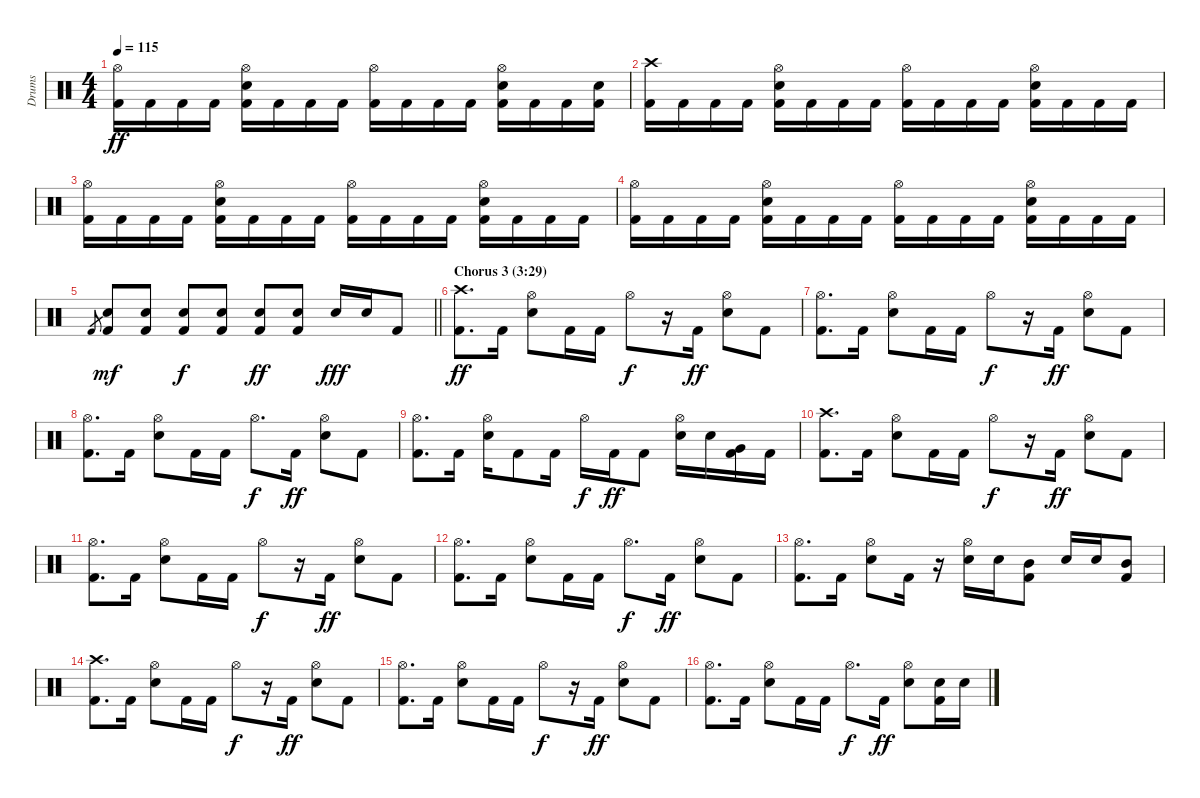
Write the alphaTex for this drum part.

\track ("Drums" "Drums") {instrument percussion}
\staff {score}
\articulation defaults
\ts (4 4)
\tempo 115
\clef neutral
\ks c
("Hi-Hat (open)" "Kick (hit) 2").16{dy ff} "Kick (hit) 2".16 "Kick (hit) 2".16 "Kick (hit) 2".16 ("Hi-Hat (open)" "Snare (hit) 2" "Kick (hit) 2").16 "Kick (hit) 2".16 "Kick (hit) 2".16 "Kick (hit) 2".16 ("Hi-Hat (open)" "Kick (hit) 2").16 "Kick (hit) 2".16 "Kick (hit) 2".16 "Kick (hit) 2".16 ("Hi-Hat (open)" "Snare (hit) 2" "Kick (hit) 2").16 "Kick (hit) 2".16 "Kick (hit) 2".16 ("Snare (hit) 2" "Kick (hit) 2").16 |
("Crash high (hit)" "Kick (hit) 2").16 "Kick (hit) 2".16 "Kick (hit) 2".16 "Kick (hit) 2".16 ("Hi-Hat (open)" "Snare (hit) 2" "Kick (hit) 2").16 "Kick (hit) 2".16 "Kick (hit) 2".16 "Kick (hit) 2".16 ("Hi-Hat (open)" "Kick (hit) 2").16 "Kick (hit) 2".16 "Kick (hit) 2".16 "Kick (hit) 2".16 ("Hi-Hat (open)" "Snare (hit) 2" "Kick (hit) 2").16 "Kick (hit) 2".16 "Kick (hit) 2".16 "Kick (hit) 2".16 |
("Hi-Hat (open)" "Kick (hit) 2").16 "Kick (hit) 2".16 "Kick (hit) 2".16 "Kick (hit) 2".16 ("Hi-Hat (open)" "Snare (hit) 2" "Kick (hit) 2").16 "Kick (hit) 2".16 "Kick (hit) 2".16 "Kick (hit) 2".16 ("Hi-Hat (open)" "Kick (hit) 2").16 "Kick (hit) 2".16 "Kick (hit) 2".16 "Kick (hit) 2".16 ("Hi-Hat (open)" "Snare (hit) 2" "Kick (hit) 2").16 "Kick (hit) 2".16 "Kick (hit) 2".16 "Kick (hit) 2".16 |
("Hi-Hat (open)" "Kick (hit) 2").16 "Kick (hit) 2".16 "Kick (hit) 2".16 "Kick (hit) 2".16 ("Hi-Hat (open)" "Snare (hit) 2" "Kick (hit) 2").16 "Kick (hit) 2".16 "Kick (hit) 2".16 "Kick (hit) 2".16 ("Hi-Hat (open)" "Kick (hit) 2").16 "Kick (hit) 2".16 "Kick (hit) 2".16 "Kick (hit) 2".16 ("Hi-Hat (open)" "Snare (hit) 2" "Kick (hit) 2").16 "Kick (hit) 2".16 "Kick (hit) 2".16 "Kick (hit) 2".16 |
\barLineRight lightlight "Kick (hit) 2".8{gr}
("Snare (hit) 2" "Kick (hit) 2").8{dy mf} ("Snare (hit) 2" "Kick (hit) 2").8 ("Snare (hit) 2" "Kick (hit) 2").8{dy f} ("Snare (hit) 2" "Kick (hit) 2").8 ("Snare (hit) 2" "Kick (hit) 2").8{dy ff} ("Snare (hit) 2" "Kick (hit) 2").8 "Snare (hit) 2".16{dy fff} "Snare (hit) 2".16 "Kick (hit) 2".8 |
\section ("" "Chorus 3 (3:29)")
("Crash high (hit)" "Kick (hit) 2").8{d dy ff} "Kick (hit) 2".16 ("Hi-Hat (open)" "Snare (hit) 2").8 "Kick (hit) 2".16 "Kick (hit) 2".16 "Hi-Hat (open)".8{dy f} r.16 "Kick (hit) 2".16{dy ff} ("Hi-Hat (open)" "Snare (hit) 2").8 "Kick (hit) 2".8 |
("Hi-Hat (open)" "Kick (hit) 2").8{d} "Kick (hit) 2".16 ("Hi-Hat (open)" "Snare (hit) 2").8 "Kick (hit) 2".16 "Kick (hit) 2".16 "Hi-Hat (open)".8{dy f} r.16 "Kick (hit) 2".16{dy ff} ("Hi-Hat (open)" "Snare (hit) 2").8 "Kick (hit) 2".8 |
("Hi-Hat (open)" "Kick (hit) 2").8{d} "Kick (hit) 2".16 ("Hi-Hat (open)" "Snare (hit) 2").8 "Kick (hit) 2".16 "Kick (hit) 2".16 "Hi-Hat (open)".8{d dy f} "Kick (hit) 2".16{dy ff} ("Hi-Hat (open)" "Snare (hit) 2").8 "Kick (hit) 2".8 |
("Hi-Hat (open)" "Kick (hit) 2").8{d} "Kick (hit) 2".16 ("Hi-Hat (open)" "Snare (hit) 2").16 "Kick (hit) 2".8 "Kick (hit) 2".16 "Hi-Hat (open)".16{dy f} "Kick (hit) 2".16{dy ff} "Kick (hit) 2".8 ("Hi-Hat (open)" "Snare (hit) 2").16 "Snare (hit) 2".16 ("Very Low Tom (hit)" "Kick (hit) 2").16 "Kick (hit) 2".16 |
("Crash high (hit)" "Kick (hit) 2").8{d} "Kick (hit) 2".16 ("Hi-Hat (open)" "Snare (hit) 2").8 "Kick (hit) 2".16 "Kick (hit) 2".16 "Hi-Hat (open)".8{dy f} r.16 "Kick (hit) 2".16{dy ff} ("Hi-Hat (open)" "Snare (hit) 2").8 "Kick (hit) 2".8 |
("Hi-Hat (open)" "Kick (hit) 2").8{d} "Kick (hit) 2".16 ("Hi-Hat (open)" "Snare (hit) 2").8 "Kick (hit) 2".16 "Kick (hit) 2".16 "Hi-Hat (open)".8{dy f} r.16 "Kick (hit) 2".16{dy ff} ("Hi-Hat (open)" "Snare (hit) 2").8 "Kick (hit) 2".8 |
("Hi-Hat (open)" "Kick (hit) 2").8{d} "Kick (hit) 2".16 ("Hi-Hat (open)" "Snare (hit) 2").8 "Kick (hit) 2".16 "Kick (hit) 2".16 "Hi-Hat (open)".8{d dy f} "Kick (hit) 2".16{dy ff} ("Hi-Hat (open)" "Snare (hit) 2").8 "Kick (hit) 2".8 |
("Hi-Hat (open)" "Kick (hit) 2").8{d} "Kick (hit) 2".16 ("Hi-Hat (open)" "Snare (hit) 2").8 "Kick (hit) 2".16 r.16 ("Hi-Hat (open)" "Snare (hit) 2").16 "Snare (hit) 2".16 ("Mid Tom (hit)" "Kick (hit) 2").8 "Snare (hit) 2".16 "Snare (hit) 2".16 ("Mid Tom (hit)" "Kick (hit) 2").8 |
("Crash high (hit)" "Kick (hit) 2").8{d} "Kick (hit) 2".16 ("Hi-Hat (open)" "Snare (hit) 2").8 "Kick (hit) 2".16 "Kick (hit) 2".16 "Hi-Hat (open)".8{dy f} r.16 "Kick (hit) 2".16{dy ff} ("Hi-Hat (open)" "Snare (hit) 2").8 "Kick (hit) 2".8 |
("Hi-Hat (open)" "Kick (hit) 2").8{d} "Kick (hit) 2".16 ("Hi-Hat (open)" "Snare (hit) 2").8 "Kick (hit) 2".16 "Kick (hit) 2".16 "Hi-Hat (open)".8{dy f} r.16 "Kick (hit) 2".16{dy ff} ("Hi-Hat (open)" "Snare (hit) 2").8 "Kick (hit) 2".8 |
("Hi-Hat (open)" "Kick (hit) 2").8{d} "Kick (hit) 2".16 ("Hi-Hat (open)" "Snare (hit) 2").8 "Kick (hit) 2".16 "Kick (hit) 2".16 "Hi-Hat (open)".8{d dy f} "Kick (hit) 2".16{dy ff} ("Hi-Hat (open)" "Snare (hit) 2").8 ("Snare (hit) 2" "Kick (hit) 2").16 "Snare (hit) 2".16
